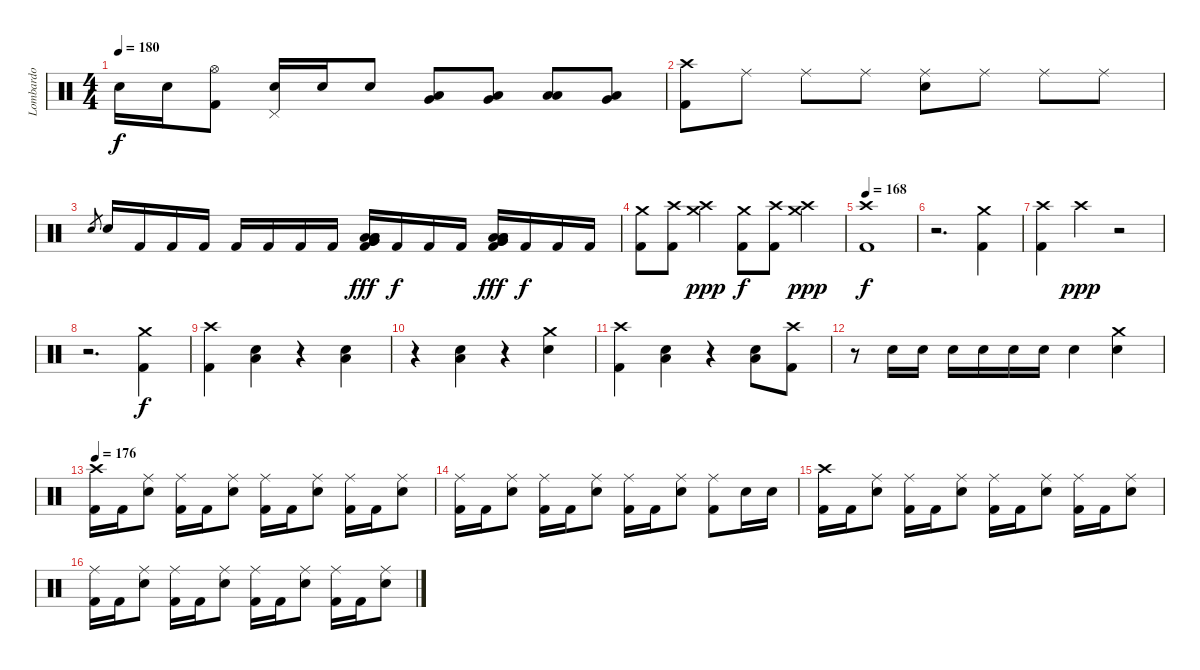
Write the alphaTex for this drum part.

\track ("Lombardo" "Lombardo") {instrument percussion}
\staff {score}
\articulation defaults
\ts (4 4)
\tempo 180
\clef neutral
\ks c "Electric Snare (hit)".16{dy f} "Electric Snare (hit)".16
("Hi-Hat (open)" "Kick (hit) 2").8 ("Pedal Hi-Hat (hit)" "Electric Snare (hit)").16 "Electric Snare (hit)".16 "Electric Snare (hit)".8 ("Very Low Tom (hit)" "Low Tom (hit)").8 ("Very Low Tom (hit)" "Low Tom (hit)").8 ("Low Tom (hit)" "Low Tom (hit)").8 ("Low Tom (hit)" "Very Low Tom (hit)").8 |
("Crash high (hit)" "Kick (hit) 2").8 "Ride (middle)".8 "Ride (middle)".8 "Ride (middle)".8 ("Electric Snare (hit)" "Ride (middle)").8 "Ride (middle)".8 "Ride (middle)".8 "Ride (middle)".8 |
"Electric Snare (hit)".8{gr} "Electric Snare (hit)".16 "Kick (hit) 2".16 "Kick (hit) 2".16 "Kick (hit) 2".16 "Kick (hit) 2".16 "Kick (hit) 2".16 "Kick (hit) 2".16 "Kick (hit) 2".16 ("Very Low Tom (hit)" "Low Floor Tom (hit)" "Low Tom (hit)" "Low Tom (hit)" "Kick (hit) 2" "Very Low Tom (hit)").16{dy fff} "Kick (hit) 2".16{dy f} "Kick (hit) 2".16 "Kick (hit) 2".16 ("Very Low Tom (hit)" "Low Floor Tom (hit)" "Low Tom (hit)" "Low Tom (hit)" "Kick (hit) 2" "Very Low Tom (hit)").16{dy fff} "Kick (hit) 2".16{dy f} "Kick (hit) 2".16 "Kick (hit) 2".16 |
("Crash medium (hit)" "Kick (hit) 2").8 ("Crash high (hit)" "Kick (hit) 2").8 ("Crash high (hit)" "Crash medium (hit)").4{dy ppp} ("Crash medium (hit)" "Kick (hit) 2").8{dy f} ("Crash high (hit)" "Kick (hit) 2").8 ("Crash medium (hit)" "Crash high (hit)").4{dy ppp} |
\tempo 168
("Crash high (hit)" "Kick (hit) 2").1{dy f} |
r.2{d} ("Crash medium (hit)" "Kick (hit) 2").4 |
("Crash high (hit)" "Kick (hit) 2").4 "Crash high (hit)".4{dy ppp} r.2 |
r.2{d} ("Crash medium (hit)" "Kick (hit) 2").4{dy f} |
("Crash high (hit)" "Kick (hit) 2").4 ("Low Tom (hit)" "Electric Snare (hit)").4 r.4 ("Low Tom (hit)" "Electric Snare (hit)").4 |
r.4 ("Low Tom (hit)" "Electric Snare (hit)").4 r.4 ("Crash medium (hit)" "Electric Snare (hit)").4 |
("Crash high (hit)" "Kick (hit) 2").4 ("Low Tom (hit)" "Electric Snare (hit)").4 r.4 ("Low Tom (hit)" "Electric Snare (hit)").8 ("Crash high (hit)" "Kick (hit) 2").8 |
r.8 "Electric Snare (hit)".16 "Electric Snare (hit)".16 "Electric Snare (hit)".16 "Electric Snare (hit)".16 "Electric Snare (hit)".16 "Electric Snare (hit)".16 "Electric Snare (hit)".4 ("Crash medium (hit)" "Electric Snare (hit)").4 |
\tempo 176
("Crash high (hit)" "Kick (hit) 2").16 "Kick (hit) 2".16 ("Ride (middle)" "Electric Snare (hit)").8 ("Ride (middle)" "Kick (hit) 2").16 "Kick (hit) 2".16 ("Ride (middle)" "Electric Snare (hit)").8 ("Ride (middle)" "Kick (hit) 2").16 "Kick (hit) 2".16 ("Ride (middle)" "Electric Snare (hit)").8 ("Ride (middle)" "Kick (hit) 2").16 "Kick (hit) 2".16 ("Ride (middle)" "Electric Snare (hit)").8 |
("Ride (middle)" "Kick (hit) 2").16 "Kick (hit) 2".16 ("Ride (middle)" "Electric Snare (hit)").8 ("Ride (middle)" "Kick (hit) 2").16 "Kick (hit) 2".16 ("Ride (middle)" "Electric Snare (hit)").8 ("Ride (middle)" "Kick (hit) 2").16 "Kick (hit) 2".16 ("Ride (middle)" "Electric Snare (hit)").8 ("Ride (middle)" "Kick (hit) 2").8 "Electric Snare (hit)".16 "Electric Snare (hit)".16 |
("Crash high (hit)" "Kick (hit) 2").16 "Kick (hit) 2".16 ("Ride (middle)" "Electric Snare (hit)").8 ("Ride (middle)" "Kick (hit) 2").16 "Kick (hit) 2".16 ("Ride (middle)" "Electric Snare (hit)").8 ("Ride (middle)" "Kick (hit) 2").16 "Kick (hit) 2".16 ("Ride (middle)" "Electric Snare (hit)").8 ("Ride (middle)" "Kick (hit) 2").16 "Kick (hit) 2".16 ("Ride (middle)" "Electric Snare (hit)").8 |
("Ride (middle)" "Kick (hit) 2").16 "Kick (hit) 2".16 ("Ride (middle)" "Electric Snare (hit)").8 ("Ride (middle)" "Kick (hit) 2").16 "Kick (hit) 2".16 ("Ride (middle)" "Electric Snare (hit)").8 ("Ride (middle)" "Kick (hit) 2").16 "Kick (hit) 2".16 ("Ride (middle)" "Electric Snare (hit)").8 ("Ride (middle)" "Kick (hit) 2").16 "Kick (hit) 2".16 ("Ride (middle)" "Electric Snare (hit)").8
